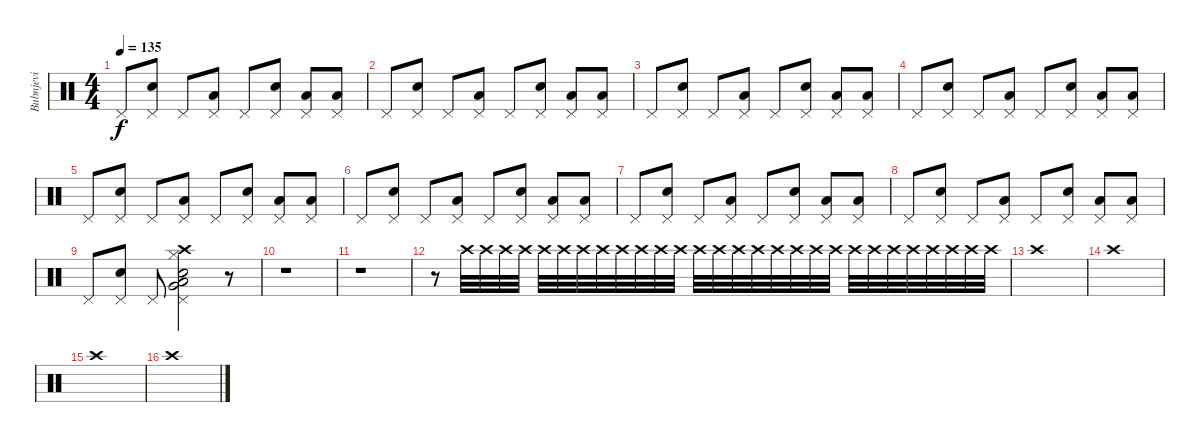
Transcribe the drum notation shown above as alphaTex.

\track ("Bubnjevi" "Bubnjevi") {instrument percussion}
\staff {score}
\articulation defaults
\ts (4 4)
\tempo 135
\clef neutral
\ks c "Pedal Hi-Hat (hit)".8{dy f}
("Pedal Hi-Hat (hit)" "Snare (hit) 2").8 "Pedal Hi-Hat (hit)".8 ("Pedal Hi-Hat (hit)" "Low Tom (hit)").8 "Pedal Hi-Hat (hit)".8 ("Pedal Hi-Hat (hit)" "Snare (hit) 2").8 ("Pedal Hi-Hat (hit)" "Low Tom (hit)").8 ("Pedal Hi-Hat (hit)" "Low Tom (hit)").8 |
"Pedal Hi-Hat (hit)".8 ("Pedal Hi-Hat (hit)" "Snare (hit) 2").8 "Pedal Hi-Hat (hit)".8 ("Pedal Hi-Hat (hit)" "Low Tom (hit)").8 "Pedal Hi-Hat (hit)".8 ("Pedal Hi-Hat (hit)" "Snare (hit) 2").8 ("Pedal Hi-Hat (hit)" "Low Tom (hit)").8 ("Pedal Hi-Hat (hit)" "Low Tom (hit)").8 |
"Pedal Hi-Hat (hit)".8 ("Pedal Hi-Hat (hit)" "Snare (hit) 2").8 "Pedal Hi-Hat (hit)".8 ("Pedal Hi-Hat (hit)" "Low Tom (hit)").8 "Pedal Hi-Hat (hit)".8 ("Pedal Hi-Hat (hit)" "Snare (hit) 2").8 ("Pedal Hi-Hat (hit)" "Low Tom (hit)").8 ("Pedal Hi-Hat (hit)" "Low Tom (hit)").8 |
"Pedal Hi-Hat (hit)".8 ("Pedal Hi-Hat (hit)" "Snare (hit) 2").8 "Pedal Hi-Hat (hit)".8 ("Pedal Hi-Hat (hit)" "Low Tom (hit)").8 "Pedal Hi-Hat (hit)".8 ("Pedal Hi-Hat (hit)" "Snare (hit) 2").8 ("Pedal Hi-Hat (hit)" "Low Tom (hit)").8 ("Pedal Hi-Hat (hit)" "Low Tom (hit)").8 |
"Pedal Hi-Hat (hit)".8 ("Pedal Hi-Hat (hit)" "Snare (hit) 2").8 "Pedal Hi-Hat (hit)".8 ("Pedal Hi-Hat (hit)" "Low Tom (hit)").8 "Pedal Hi-Hat (hit)".8 ("Pedal Hi-Hat (hit)" "Snare (hit) 2").8 ("Pedal Hi-Hat (hit)" "Low Tom (hit)").8 ("Pedal Hi-Hat (hit)" "Low Tom (hit)").8 |
"Pedal Hi-Hat (hit)".8 ("Pedal Hi-Hat (hit)" "Snare (hit) 2").8 "Pedal Hi-Hat (hit)".8 ("Pedal Hi-Hat (hit)" "Low Tom (hit)").8 "Pedal Hi-Hat (hit)".8 ("Pedal Hi-Hat (hit)" "Snare (hit) 2").8 ("Pedal Hi-Hat (hit)" "Low Tom (hit)").8 ("Pedal Hi-Hat (hit)" "Low Tom (hit)").8 |
"Pedal Hi-Hat (hit)".8 ("Pedal Hi-Hat (hit)" "Snare (hit) 2").8 "Pedal Hi-Hat (hit)".8 ("Pedal Hi-Hat (hit)" "Low Tom (hit)").8 "Pedal Hi-Hat (hit)".8 ("Pedal Hi-Hat (hit)" "Snare (hit) 2").8 ("Pedal Hi-Hat (hit)" "Low Tom (hit)").8 ("Pedal Hi-Hat (hit)" "Low Tom (hit)").8 |
"Pedal Hi-Hat (hit)".8 ("Pedal Hi-Hat (hit)" "Snare (hit) 2").8 "Pedal Hi-Hat (hit)".8 ("Pedal Hi-Hat (hit)" "Low Tom (hit)").8 "Pedal Hi-Hat (hit)".8 ("Pedal Hi-Hat (hit)" "Snare (hit) 2").8 ("Pedal Hi-Hat (hit)" "Low Tom (hit)").8 ("Pedal Hi-Hat (hit)" "Low Tom (hit)").8 |
"Pedal Hi-Hat (hit)".8 ("Pedal Hi-Hat (hit)" "Snare (hit) 2").8 "Pedal Hi-Hat (hit)".8 ("Pedal Hi-Hat (hit)" "Crash high (hit)" "Snare (hit) 2" "Low Tom (hit)" "Very Low Tom (hit)" "Hi-Hat (closed)").2 r.8 |
r.1 |
r.1 |
r.8 "Crash high (hit)".32 "Crash high (hit)".32 "Crash high (hit)".32 "Crash high (hit)".32 "Crash high (hit)".32 "Crash high (hit)".32 "Crash high (hit)".32 "Crash high (hit)".32 "Crash high (hit)".32 "Crash high (hit)".32 "Crash high (hit)".32 "Crash high (hit)".32 "Crash high (hit)".32 "Crash high (hit)".32 "Crash high (hit)".32 "Crash high (hit)".32 "Crash high (hit)".32 "Crash high (hit)".32 "Crash high (hit)".32 "Crash high (hit)".32 "Crash high (hit)".32 "Crash high (hit)".32 "Crash high (hit)".32 "Crash high (hit)".32 "Crash high (hit)".32 "Crash high (hit)".32 "Crash high (hit)".32 "Crash high (hit)".32 |
"Crash high (hit)".1 |
"Crash high (hit)".1 |
"Crash high (hit)".1 |
"Crash high (hit)".1
